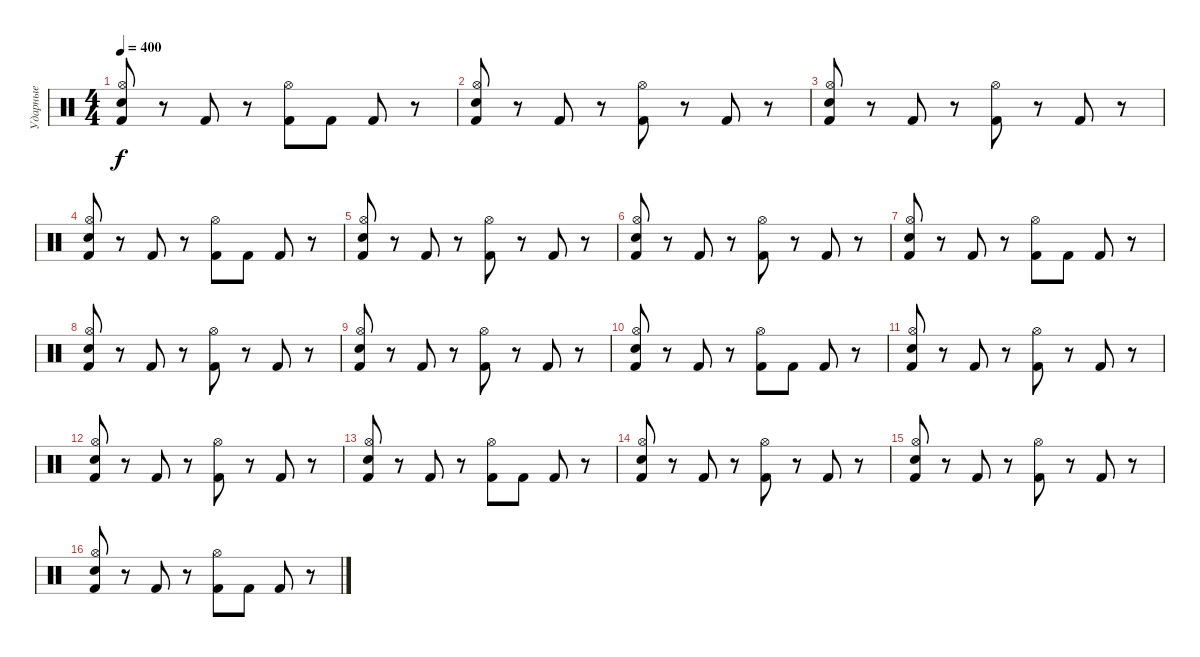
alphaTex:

\track ("Ударные" "Ударные") {instrument percussion}
\staff {score}
\articulation defaults
\ts (4 4)
\tempo 400
\clef neutral
\ks c
("Electric Snare (hit)" "Hi-Hat (open)" "Kick (hit) 2").8{dy f} r.8 "Kick (hit) 2".8 r.8 ("Kick (hit) 2" "Hi-Hat (open)").8 "Kick (hit) 2".8 "Kick (hit) 2".8 r.8 |
("Electric Snare (hit)" "Hi-Hat (open)" "Kick (hit) 2").8 r.8 "Kick (hit) 2".8 r.8 ("Hi-Hat (open)" "Kick (hit) 2").8 r.8 "Kick (hit) 2".8 r.8 |
("Electric Snare (hit)" "Hi-Hat (open)" "Kick (hit) 2").8 r.8 "Kick (hit) 2".8 r.8 ("Kick (hit) 2" "Hi-Hat (open)").8 r.8 "Kick (hit) 2".8 r.8 |
("Electric Snare (hit)" "Hi-Hat (open)" "Kick (hit) 2").8 r.8 "Kick (hit) 2".8 r.8 ("Kick (hit) 2" "Hi-Hat (open)").8 "Kick (hit) 2".8 "Kick (hit) 2".8 r.8 |
("Electric Snare (hit)" "Hi-Hat (open)" "Kick (hit) 2").8 r.8 "Kick (hit) 2".8 r.8 ("Hi-Hat (open)" "Kick (hit) 2").8 r.8 "Kick (hit) 2".8 r.8 |
("Electric Snare (hit)" "Hi-Hat (open)" "Kick (hit) 2").8 r.8 "Kick (hit) 2".8 r.8 ("Kick (hit) 2" "Hi-Hat (open)").8 r.8 "Kick (hit) 2".8 r.8 |
("Electric Snare (hit)" "Hi-Hat (open)" "Kick (hit) 2").8 r.8 "Kick (hit) 2".8 r.8 ("Kick (hit) 2" "Hi-Hat (open)").8 "Kick (hit) 2".8 "Kick (hit) 2".8 r.8 |
("Electric Snare (hit)" "Hi-Hat (open)" "Kick (hit) 2").8 r.8 "Kick (hit) 2".8 r.8 ("Hi-Hat (open)" "Kick (hit) 2").8 r.8 "Kick (hit) 2".8 r.8 |
("Electric Snare (hit)" "Hi-Hat (open)" "Kick (hit) 2").8 r.8 "Kick (hit) 2".8 r.8 ("Kick (hit) 2" "Hi-Hat (open)").8 r.8 "Kick (hit) 2".8 r.8 |
("Electric Snare (hit)" "Hi-Hat (open)" "Kick (hit) 2").8 r.8 "Kick (hit) 2".8 r.8 ("Kick (hit) 2" "Hi-Hat (open)").8 "Kick (hit) 2".8 "Kick (hit) 2".8 r.8 |
("Electric Snare (hit)" "Hi-Hat (open)" "Kick (hit) 2").8 r.8 "Kick (hit) 2".8 r.8 ("Hi-Hat (open)" "Kick (hit) 2").8 r.8 "Kick (hit) 2".8 r.8 |
("Electric Snare (hit)" "Hi-Hat (open)" "Kick (hit) 2").8 r.8 "Kick (hit) 2".8 r.8 ("Kick (hit) 2" "Hi-Hat (open)").8 r.8 "Kick (hit) 2".8 r.8 |
("Electric Snare (hit)" "Hi-Hat (open)" "Kick (hit) 2").8 r.8 "Kick (hit) 2".8 r.8 ("Kick (hit) 2" "Hi-Hat (open)").8 "Kick (hit) 2".8 "Kick (hit) 2".8 r.8 |
("Electric Snare (hit)" "Hi-Hat (open)" "Kick (hit) 2").8 r.8 "Kick (hit) 2".8 r.8 ("Hi-Hat (open)" "Kick (hit) 2").8 r.8 "Kick (hit) 2".8 r.8 |
("Electric Snare (hit)" "Hi-Hat (open)" "Kick (hit) 2").8 r.8 "Kick (hit) 2".8 r.8 ("Kick (hit) 2" "Hi-Hat (open)").8 r.8 "Kick (hit) 2".8 r.8 |
("Electric Snare (hit)" "Hi-Hat (open)" "Kick (hit) 2").8 r.8 "Kick (hit) 2".8 r.8 ("Kick (hit) 2" "Hi-Hat (open)").8 "Kick (hit) 2".8 "Kick (hit) 2".8 r.8
